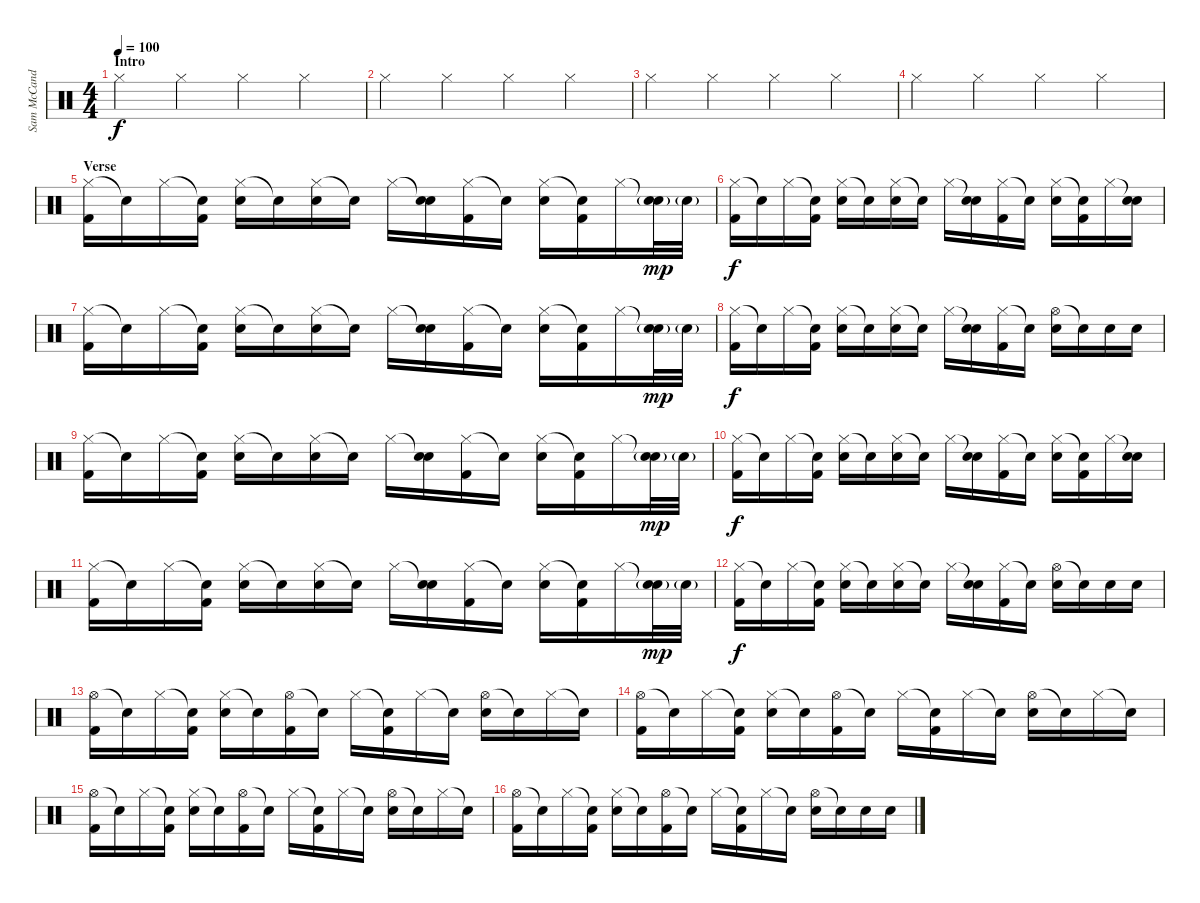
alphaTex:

\track ("Sam McCandless (Drums)" "Sam McCand") {instrument percussion}
\staff {score}
\articulation defaults
\ts (4 4)
\section ("" "Intro")
\tempo 100
\clef neutral
\ks c "Hi-Hat (closed)".4{dy f} "Hi-Hat (closed)".4 "Hi-Hat (closed)".4 "Hi-Hat (closed)".4
|
"Hi-Hat (closed)".4 "Hi-Hat (closed)".4 "Hi-Hat (closed)".4 "Hi-Hat (closed)".4 |
"Hi-Hat (closed)".4 "Hi-Hat (closed)".4 "Hi-Hat (closed)".4 "Hi-Hat (closed)".4 |
"Hi-Hat (closed)".4 "Hi-Hat (closed)".4 "Hi-Hat (closed)".4 "Hi-Hat (closed)".4 |
\section ("" "Verse")
("Hi-Hat (closed)" "Kick (hit) 2").16 "Snare (hit)"{t}.16 "Hi-Hat (closed)".16 ("Snare (hit)"{t} "Kick (hit) 2").16 ("Hi-Hat (closed)" "Electric Snare (hit)").16 "Snare (hit)"{t}.16 ("Hi-Hat (closed)" "Electric Snare (hit)").16 "Snare (hit)"{t}.16 "Hi-Hat (closed)".16 ("Snare (hit)"{t} "Electric Snare (hit)").16 ("Hi-Hat (closed)" "Kick (hit) 2").16 "Snare (hit)"{t}.16 ("Hi-Hat (closed)" "Electric Snare (hit)").16 ("Snare (hit)"{t} "Kick (hit) 2").16 "Hi-Hat (closed)".16 ("Snare (hit)"{t} "Electric Snare (hit)"{g}).32{dy mp} "Electric Snare (hit)"{g}.32 |
("Hi-Hat (closed)" "Kick (hit) 2").16{dy f} "Snare (hit)"{t}.16 "Hi-Hat (closed)".16 ("Snare (hit)"{t} "Kick (hit) 2").16 ("Hi-Hat (closed)" "Electric Snare (hit)").16 "Snare (hit)"{t}.16 ("Hi-Hat (closed)" "Electric Snare (hit)").16 "Snare (hit)"{t}.16 "Hi-Hat (closed)".16 ("Snare (hit)"{t} "Electric Snare (hit)").16 ("Hi-Hat (closed)" "Kick (hit) 2").16 "Snare (hit)"{t}.16 ("Hi-Hat (closed)" "Electric Snare (hit)").16 ("Snare (hit)"{t} "Kick (hit) 2").16 "Hi-Hat (closed)".16 ("Snare (hit)"{t} "Electric Snare (hit)").16 |
("Hi-Hat (closed)" "Kick (hit) 2").16 "Snare (hit)"{t}.16 "Hi-Hat (closed)".16 ("Snare (hit)"{t} "Kick (hit) 2").16 ("Hi-Hat (closed)" "Electric Snare (hit)").16 "Snare (hit)"{t}.16 ("Hi-Hat (closed)" "Electric Snare (hit)").16 "Snare (hit)"{t}.16 "Hi-Hat (closed)".16 ("Snare (hit)"{t} "Electric Snare (hit)").16 ("Hi-Hat (closed)" "Kick (hit) 2").16 "Snare (hit)"{t}.16 ("Hi-Hat (closed)" "Electric Snare (hit)").16 ("Snare (hit)"{t} "Kick (hit) 2").16 "Hi-Hat (closed)".16 ("Snare (hit)"{t} "Electric Snare (hit)"{g}).32{dy mp} "Electric Snare (hit)"{g}.32 |
("Hi-Hat (closed)" "Kick (hit) 2").16{dy f} "Snare (hit)"{t}.16 "Hi-Hat (closed)".16 ("Snare (hit)"{t} "Kick (hit) 2").16 ("Hi-Hat (closed)" "Electric Snare (hit)").16 "Snare (hit)"{t}.16 ("Hi-Hat (closed)" "Electric Snare (hit)").16 "Snare (hit)"{t}.16 "Hi-Hat (closed)".16 ("Snare (hit)"{t} "Electric Snare (hit)").16 ("Hi-Hat (closed)" "Kick (hit) 2").16 "Snare (hit)"{t}.16 ("Hi-Hat (open)" "Electric Snare (hit)").16 "Snare (hit)"{t}.16 "Electric Snare (hit)".16 "Electric Snare (hit)".16 |
("Hi-Hat (closed)" "Kick (hit) 2").16 "Snare (hit)"{t}.16 "Hi-Hat (closed)".16 ("Snare (hit)"{t} "Kick (hit) 2").16 ("Hi-Hat (closed)" "Electric Snare (hit)").16 "Snare (hit)"{t}.16 ("Hi-Hat (closed)" "Electric Snare (hit)").16 "Snare (hit)"{t}.16 "Hi-Hat (closed)".16 ("Snare (hit)"{t} "Electric Snare (hit)").16 ("Hi-Hat (closed)" "Kick (hit) 2").16 "Snare (hit)"{t}.16 ("Hi-Hat (closed)" "Electric Snare (hit)").16 ("Snare (hit)"{t} "Kick (hit) 2").16 "Hi-Hat (closed)".16 ("Snare (hit)"{t} "Electric Snare (hit)"{g}).32{dy mp} "Electric Snare (hit)"{g}.32 |
("Hi-Hat (closed)" "Kick (hit) 2").16{dy f} "Snare (hit)"{t}.16 "Hi-Hat (closed)".16 ("Snare (hit)"{t} "Kick (hit) 2").16 ("Hi-Hat (closed)" "Electric Snare (hit)").16 "Snare (hit)"{t}.16 ("Hi-Hat (closed)" "Electric Snare (hit)").16 "Snare (hit)"{t}.16 "Hi-Hat (closed)".16 ("Snare (hit)"{t} "Electric Snare (hit)").16 ("Hi-Hat (closed)" "Kick (hit) 2").16 "Snare (hit)"{t}.16 ("Hi-Hat (closed)" "Electric Snare (hit)").16 ("Snare (hit)"{t} "Kick (hit) 2").16 "Hi-Hat (closed)".16 ("Snare (hit)"{t} "Electric Snare (hit)").16 |
("Hi-Hat (closed)" "Kick (hit) 2").16 "Snare (hit)"{t}.16 "Hi-Hat (closed)".16 ("Snare (hit)"{t} "Kick (hit) 2").16 ("Hi-Hat (closed)" "Electric Snare (hit)").16 "Snare (hit)"{t}.16 ("Hi-Hat (closed)" "Electric Snare (hit)").16 "Snare (hit)"{t}.16 "Hi-Hat (closed)".16 ("Snare (hit)"{t} "Electric Snare (hit)").16 ("Hi-Hat (closed)" "Kick (hit) 2").16 "Snare (hit)"{t}.16 ("Hi-Hat (closed)" "Electric Snare (hit)").16 ("Snare (hit)"{t} "Kick (hit) 2").16 "Hi-Hat (closed)".16 ("Snare (hit)"{t} "Electric Snare (hit)"{g}).32{dy mp} "Electric Snare (hit)"{g}.32 |
("Hi-Hat (closed)" "Kick (hit) 2").16{dy f} "Snare (hit)"{t}.16 "Hi-Hat (closed)".16 ("Snare (hit)"{t} "Kick (hit) 2").16 ("Hi-Hat (closed)" "Electric Snare (hit)").16 "Snare (hit)"{t}.16 ("Hi-Hat (closed)" "Electric Snare (hit)").16 "Snare (hit)"{t}.16 "Hi-Hat (closed)".16 ("Snare (hit)"{t} "Electric Snare (hit)").16 ("Hi-Hat (closed)" "Kick (hit) 2").16 "Snare (hit)"{t}.16 ("Hi-Hat (open)" "Electric Snare (hit)").16 "Snare (hit)"{t}.16 "Electric Snare (hit)".16 "Electric Snare (hit)".16 |
("Hi-Hat (open)" "Kick (hit) 2").16 "Snare (hit)"{t}.16 "Hi-Hat (closed)".16 ("Snare (hit)"{t} "Kick (hit) 2").16 ("Hi-Hat (closed)" "Electric Snare (hit)").16 "Snare (hit)"{t}.16 ("Hi-Hat (open)" "Kick (hit) 2").16 "Snare (hit)"{t}.16 "Hi-Hat (closed)".16 ("Snare (hit)"{t} "Kick (hit) 2").16 "Hi-Hat (closed)".16 "Snare (hit)"{t}.16 ("Hi-Hat (open)" "Electric Snare (hit)").16 "Snare (hit)"{t}.16 "Hi-Hat (closed)".16 "Snare (hit)"{t}.16 |
("Hi-Hat (open)" "Kick (hit) 2").16 "Snare (hit)"{t}.16 "Hi-Hat (closed)".16 ("Snare (hit)"{t} "Kick (hit) 2").16 ("Hi-Hat (closed)" "Electric Snare (hit)").16 "Snare (hit)"{t}.16 ("Hi-Hat (open)" "Kick (hit) 2").16 "Snare (hit)"{t}.16 "Hi-Hat (closed)".16 ("Snare (hit)"{t} "Kick (hit) 2").16 "Hi-Hat (closed)".16 "Snare (hit)"{t}.16 ("Hi-Hat (open)" "Electric Snare (hit)").16 "Snare (hit)"{t}.16 "Hi-Hat (closed)".16 "Snare (hit)"{t}.16 |
("Hi-Hat (open)" "Kick (hit) 2").16 "Snare (hit)"{t}.16 "Hi-Hat (closed)".16 ("Snare (hit)"{t} "Kick (hit) 2").16 ("Hi-Hat (closed)" "Electric Snare (hit)").16 "Snare (hit)"{t}.16 ("Hi-Hat (open)" "Kick (hit) 2").16 "Snare (hit)"{t}.16 "Hi-Hat (closed)".16 ("Snare (hit)"{t} "Kick (hit) 2").16 "Hi-Hat (closed)".16 "Snare (hit)"{t}.16 ("Hi-Hat (open)" "Electric Snare (hit)").16 "Snare (hit)"{t}.16 "Hi-Hat (closed)".16 "Snare (hit)"{t}.16 |
("Hi-Hat (open)" "Kick (hit) 2").16 "Snare (hit)"{t}.16 "Hi-Hat (closed)".16 ("Snare (hit)"{t} "Kick (hit) 2").16 ("Hi-Hat (closed)" "Electric Snare (hit)").16 "Snare (hit)"{t}.16 ("Hi-Hat (open)" "Kick (hit) 2").16 "Snare (hit)"{t}.16 "Hi-Hat (closed)".16 ("Snare (hit)"{t} "Kick (hit) 2").16 "Hi-Hat (closed)".16 "Snare (hit)"{t}.16 ("Hi-Hat (open)" "Electric Snare (hit)").16 "Snare (hit)"{t}.16 "Electric Snare (hit)".16 "Electric Snare (hit)".16
